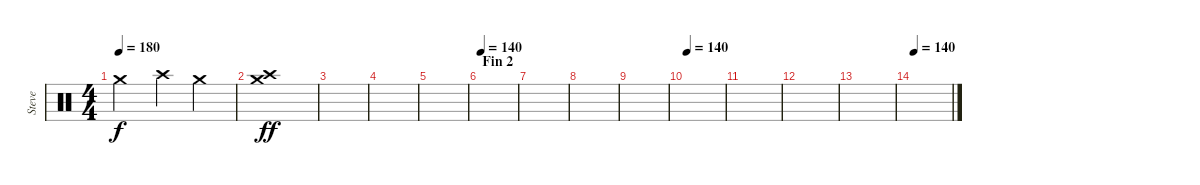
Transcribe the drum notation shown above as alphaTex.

\track ("Steve" "Steve") {instrument percussion}
\staff {score}
\articulation defaults
\ts (4 4)
\tempo 180
\clef neutral
\ks c "Crash medium (hit)".2{dy f} "Crash high (hit)".4 "Crash medium (hit)".4
|
("Crash medium (hit)" "Crash high (hit)").1{dy ff} |
|
|
|
\section ("" "Fin 2")
\tempo 140
|
|
|
|
\tempo 140
|
|
|
|
\tempo 140
